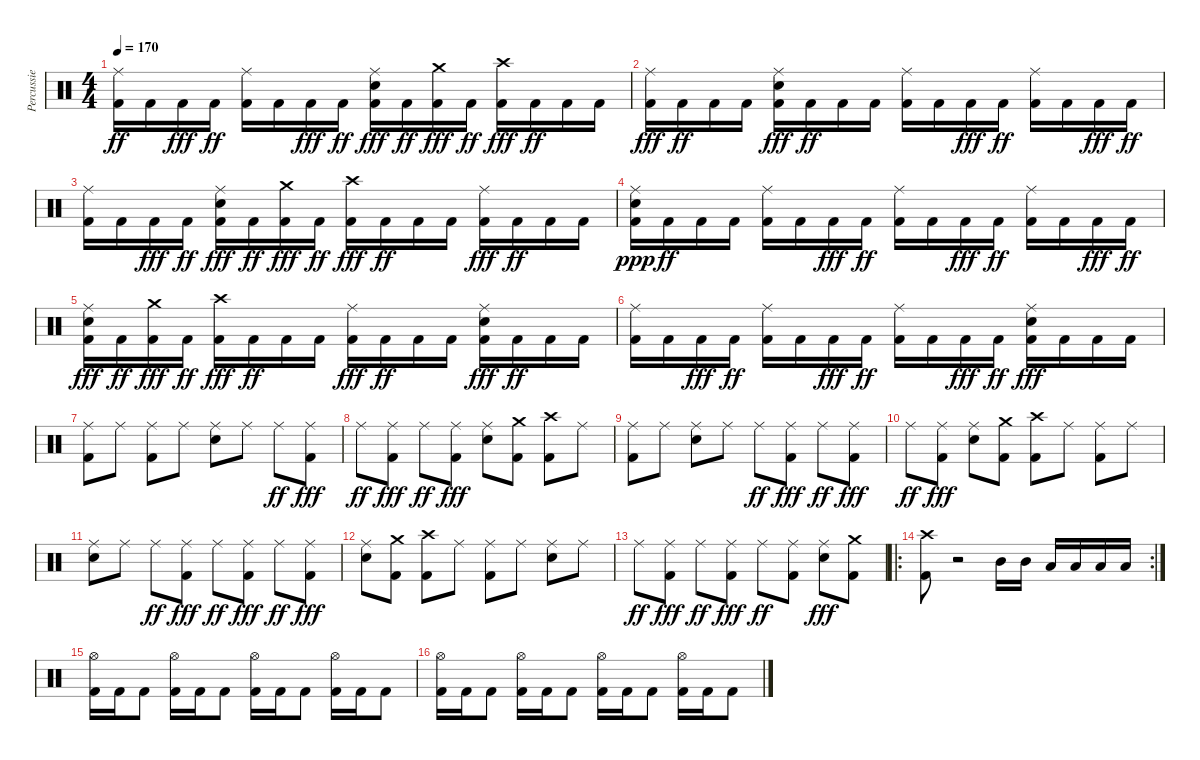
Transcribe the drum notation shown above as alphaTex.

\track ("Percussie" "Percussie") {instrument percussion}
\staff {score}
\articulation defaults
\ts (4 4)
\tempo 170
\clef neutral
\ks c
("Ride (middle)" "Kick (hit) 2").16{dy ff} "Kick (hit) 2".16 "Kick (hit) 2".16{dy fff} "Kick (hit) 2".16{dy ff} ("Ride (middle)" "Kick (hit) 2").16 "Kick (hit) 2".16 "Kick (hit) 2".16{dy fff} "Kick (hit) 2".16{dy ff} ("Ride (middle)" "Electric Snare (hit)" "Kick (hit) 2").16{dy fff} "Kick (hit) 2".16{dy ff} ("Crash medium (hit)" "Kick (hit) 2").16{dy fff} "Kick (hit) 2".16{dy ff} ("Crash high (hit)" "Kick (hit) 2").16{dy fff} "Kick (hit) 2".16{dy ff} "Kick (hit) 2".16 "Kick (hit) 2".16 |
("Ride (middle)" "Kick (hit) 2").16{dy fff} "Kick (hit) 2".16{dy ff} "Kick (hit) 2".16 "Kick (hit) 2".16 ("Ride (middle)" "Electric Snare (hit)" "Kick (hit) 2").16{dy fff} "Kick (hit) 2".16{dy ff} "Kick (hit) 2".16 "Kick (hit) 2".16 ("Ride (middle)" "Kick (hit) 2").16 "Kick (hit) 2".16 "Kick (hit) 2".16{dy fff} "Kick (hit) 2".16{dy ff} ("Ride (middle)" "Kick (hit) 2").16 "Kick (hit) 2".16 "Kick (hit) 2".16{dy fff} "Kick (hit) 2".16{dy ff} |
("Ride (middle)" "Kick (hit) 2").16 "Kick (hit) 2".16 "Kick (hit) 2".16{dy fff} "Kick (hit) 2".16{dy ff} ("Ride (middle)" "Electric Snare (hit)" "Kick (hit) 2").16{dy fff} "Kick (hit) 2".16{dy ff} ("Crash medium (hit)" "Kick (hit) 2").16{dy fff} "Kick (hit) 2".16{dy ff} ("Crash high (hit)" "Kick (hit) 2").16{dy fff} "Kick (hit) 2".16{dy ff} "Kick (hit) 2".16 "Kick (hit) 2".16 ("Ride (middle)" "Kick (hit) 2").16{dy fff} "Kick (hit) 2".16{dy ff} "Kick (hit) 2".16 "Kick (hit) 2".16 |
("Ride (middle)" "Electric Snare (hit)" "Kick (hit) 2").16{dy ppp} "Kick (hit) 2".16{dy ff} "Kick (hit) 2".16 "Kick (hit) 2".16 ("Ride (middle)" "Kick (hit) 2").16 "Kick (hit) 2".16 "Kick (hit) 2".16{dy fff} "Kick (hit) 2".16{dy ff} ("Ride (middle)" "Kick (hit) 2").16 "Kick (hit) 2".16 "Kick (hit) 2".16{dy fff} "Kick (hit) 2".16{dy ff} ("Ride (middle)" "Kick (hit) 2").16 "Kick (hit) 2".16 "Kick (hit) 2".16{dy fff} "Kick (hit) 2".16{dy ff} |
("Ride (middle)" "Electric Snare (hit)" "Kick (hit) 2").16{dy fff} "Kick (hit) 2".16{dy ff} ("Crash medium (hit)" "Kick (hit) 2").16{dy fff} "Kick (hit) 2".16{dy ff} ("Crash high (hit)" "Kick (hit) 2").16{dy fff} "Kick (hit) 2".16{dy ff} "Kick (hit) 2".16 "Kick (hit) 2".16 ("Ride (middle)" "Kick (hit) 2").16{dy fff} "Kick (hit) 2".16{dy ff} "Kick (hit) 2".16 "Kick (hit) 2".16 ("Ride (middle)" "Electric Snare (hit)" "Kick (hit) 2").16{dy fff} "Kick (hit) 2".16{dy ff} "Kick (hit) 2".16 "Kick (hit) 2".16 |
("Ride (middle)" "Kick (hit) 2").16 "Kick (hit) 2".16 "Kick (hit) 2".16{dy fff} "Kick (hit) 2".16{dy ff} ("Ride (middle)" "Kick (hit) 2").16 "Kick (hit) 2".16 "Kick (hit) 2".16{dy fff} "Kick (hit) 2".16{dy ff} ("Ride (middle)" "Kick (hit) 2").16 "Kick (hit) 2".16 "Kick (hit) 2".16{dy fff} "Kick (hit) 2".16{dy ff} ("Ride (middle)" "Electric Snare (hit)" "Kick (hit) 2").16{dy fff} "Kick (hit) 2".16 "Kick (hit) 2".16 "Kick (hit) 2".16 |
("Ride (middle)" "Kick (hit) 2").8 "Ride (middle)".8 ("Ride (middle)" "Kick (hit) 2").8 "Ride (middle)".8 ("Ride (middle)" "Electric Snare (hit)").8 "Ride (middle)".8 "Ride (middle)".8{dy ff} ("Ride (middle)" "Kick (hit) 2").8{dy fff} |
"Ride (middle)".8{dy ff} ("Ride (middle)" "Kick (hit) 2").8{dy fff} "Ride (middle)".8{dy ff} ("Ride (middle)" "Kick (hit) 2").8{dy fff} ("Ride (middle)" "Electric Snare (hit)").8 ("Crash medium (hit)" "Kick (hit) 2").8 ("Crash high (hit)" "Kick (hit) 2").8 "Ride (middle)".8 |
("Ride (middle)" "Kick (hit) 2").8 "Ride (middle)".8 ("Ride (middle)" "Electric Snare (hit)").8 "Ride (middle)".8 "Ride (middle)".8{dy ff} ("Ride (middle)" "Kick (hit) 2").8{dy fff} "Ride (middle)".8{dy ff} ("Ride (middle)" "Kick (hit) 2").8{dy fff} |
"Ride (middle)".8{dy ff} ("Ride (middle)" "Kick (hit) 2").8{dy fff} ("Ride (middle)" "Electric Snare (hit)").8 ("Crash medium (hit)" "Kick (hit) 2").8 ("Crash high (hit)" "Kick (hit) 2").8 "Ride (middle)".8 ("Ride (middle)" "Kick (hit) 2").8 "Ride (middle)".8 |
("Ride (middle)" "Electric Snare (hit)").8 "Ride (middle)".8 "Ride (middle)".8{dy ff} ("Ride (middle)" "Kick (hit) 2").8{dy fff} "Ride (middle)".8{dy ff} ("Ride (middle)" "Kick (hit) 2").8{dy fff} "Ride (middle)".8{dy ff} ("Ride (middle)" "Kick (hit) 2").8{dy fff} |
("Ride (middle)" "Electric Snare (hit)").8 ("Crash medium (hit)" "Kick (hit) 2").8 ("Crash high (hit)" "Kick (hit) 2").8 "Ride (middle)".8 ("Ride (middle)" "Kick (hit) 2").8 "Ride (middle)".8 ("Ride (middle)" "Electric Snare (hit)").8 "Ride (middle)".8 |
"Ride (middle)".8{dy ff} ("Ride (middle)" "Kick (hit) 2").8{dy fff} "Ride (middle)".8{dy ff} ("Ride (middle)" "Kick (hit) 2").8{dy fff} "Ride (middle)".8{dy ff} ("Ride (middle)" "Kick (hit) 2").8 ("Ride (middle)" "Electric Snare (hit)").8{dy fff} ("Crash medium (hit)" "Kick (hit) 2").8 |
\ro
\rc 2
("Crash high (hit)" "Kick (hit) 2").8 r.2{volume 0} "Mid Tom (hit)".16{volume 16} "Mid Tom (hit)".16 "Low Tom (hit)".16 "Low Tom (hit)".16 "Low Floor Tom (hit)".16 "Low Floor Tom (hit)".16 |
("Hi-Hat (open)" "Kick (hit) 2").16 "Kick (hit) 2".16 "Kick (hit) 2".8 ("Hi-Hat (open)" "Kick (hit) 2").16 "Kick (hit) 2".16 "Kick (hit) 2".8 ("Hi-Hat (open)" "Kick (hit) 2").16 "Kick (hit) 2".16 "Kick (hit) 2".8 ("Hi-Hat (open)" "Kick (hit) 2").16 "Kick (hit) 2".16 "Kick (hit) 2".8 |
("Hi-Hat (open)" "Kick (hit) 2").16 "Kick (hit) 2".16 "Kick (hit) 2".8 ("Hi-Hat (open)" "Kick (hit) 2").16 "Kick (hit) 2".16 "Kick (hit) 2".8 ("Hi-Hat (open)" "Kick (hit) 2").16 "Kick (hit) 2".16 "Kick (hit) 2".8 ("Hi-Hat (open)" "Kick (hit) 2").16 "Kick (hit) 2".16 "Kick (hit) 2".8
